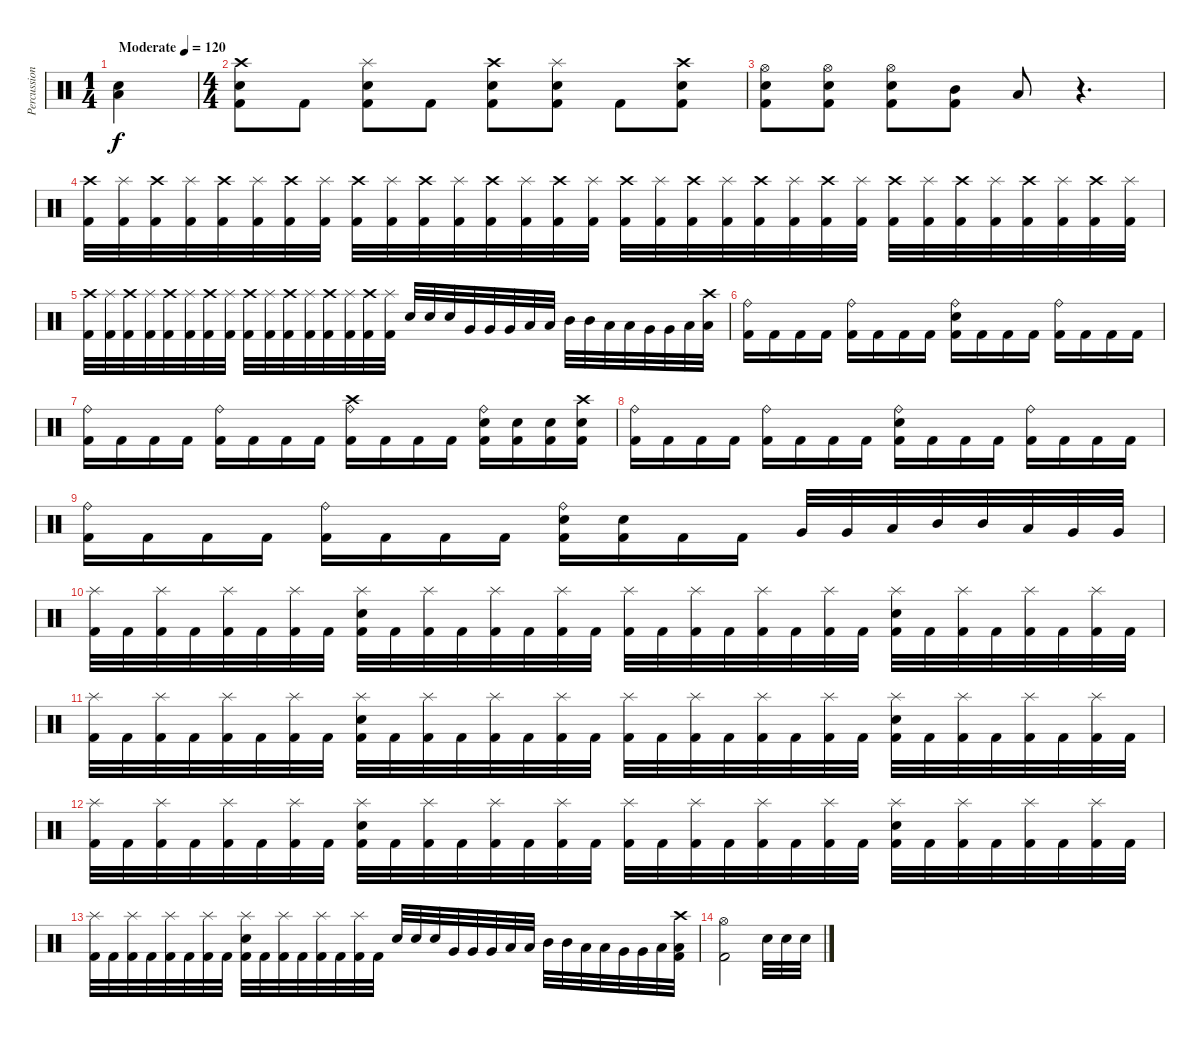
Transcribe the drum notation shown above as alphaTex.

\track ("Percussion" "Percussion") {instrument percussion}
\staff {score}
\articulation defaults
\ts (1 4)
\tempo (120 "Moderate")
\clef neutral
\ks c
("Low Floor Tom (hit)" "Snare (hit) 2").4{dy f} |
\ts (4 4)
("Kick (hit) 2" "Snare (hit) 2" "Crash high (hit)").8 "Kick (hit) 2".8 ("Kick (hit) 2" "Snare (hit) 2" "Splash (hit)").8 "Kick (hit) 2".8 ("Kick (hit) 2" "Snare (hit) 2" "Crash high (hit)").8 ("Kick (hit) 2" "Snare (hit) 2" "Splash (hit)").8 "Kick (hit) 2".8 ("Kick (hit) 2" "Snare (hit) 2" "Crash high (hit)").8 |
("Kick (hit) 2" "Hi-Hat (open)" "Snare (hit) 2").8 ("Kick (hit) 2" "Hi-Hat (open)" "Snare (hit) 2").8 ("Kick (hit) 2" "Hi-Hat (open)" "Snare (hit) 2").8 ("Kick (hit) 2" "Mid Tom (hit)").8 "Low Tom (hit)".8 r.4{d} |
("Crash high (hit)" "Kick (hit) 2").32 ("Splash (hit)" "Kick (hit) 2").32 ("Crash high (hit)" "Kick (hit) 2").32 ("Splash (hit)" "Kick (hit) 2").32 ("Crash high (hit)" "Kick (hit) 2").32 ("Splash (hit)" "Kick (hit) 2").32 ("Crash high (hit)" "Kick (hit) 2").32 ("Splash (hit)" "Kick (hit) 2").32 ("Crash high (hit)" "Kick (hit) 2").32 ("Splash (hit)" "Kick (hit) 2").32 ("Crash high (hit)" "Kick (hit) 2").32 ("Splash (hit)" "Kick (hit) 2").32 ("Crash high (hit)" "Kick (hit) 2").32 ("Splash (hit)" "Kick (hit) 2").32 ("Crash high (hit)" "Kick (hit) 2").32 ("Splash (hit)" "Kick (hit) 2").32 ("Crash high (hit)" "Kick (hit) 2").32 ("Splash (hit)" "Kick (hit) 2").32 ("Crash high (hit)" "Kick (hit) 2").32 ("Splash (hit)" "Kick (hit) 2").32 ("Crash high (hit)" "Kick (hit) 2").32 ("Splash (hit)" "Kick (hit) 2").32 ("Crash high (hit)" "Kick (hit) 2").32 ("Splash (hit)" "Kick (hit) 2").32 ("Crash high (hit)" "Kick (hit) 2").32 ("Splash (hit)" "Kick (hit) 2").32 ("Crash high (hit)" "Kick (hit) 2").32 ("Splash (hit)" "Kick (hit) 2").32 ("Crash high (hit)" "Kick (hit) 2").32 ("Splash (hit)" "Kick (hit) 2").32 ("Crash high (hit)" "Kick (hit) 2").32 ("Splash (hit)" "Kick (hit) 2").32 |
("Crash high (hit)" "Kick (hit) 2").32 ("Splash (hit)" "Kick (hit) 2").32 ("Crash high (hit)" "Kick (hit) 2").32 ("Splash (hit)" "Kick (hit) 2").32 ("Crash high (hit)" "Kick (hit) 2").32 ("Splash (hit)" "Kick (hit) 2").32 ("Crash high (hit)" "Kick (hit) 2").32 ("Splash (hit)" "Kick (hit) 2").32 ("Crash high (hit)" "Kick (hit) 2").32 ("Splash (hit)" "Kick (hit) 2").32 ("Crash high (hit)" "Kick (hit) 2").32 ("Splash (hit)" "Kick (hit) 2").32 ("Crash high (hit)" "Kick (hit) 2").32 ("Splash (hit)" "Kick (hit) 2").32 ("Crash high (hit)" "Kick (hit) 2").32 ("Splash (hit)" "Kick (hit) 2").32 "Snare (hit) 2".32 "Snare (hit) 2".32 "Snare (hit) 2".32 "Very Low Tom (hit)".32 "Very Low Tom (hit)".32 "Very Low Tom (hit)".32 "Low Tom (hit)".32 "Low Tom (hit)".32 "Mid Tom (hit)".32 "Mid Tom (hit)".32 "Low Tom (hit)".32 "Low Tom (hit)".32 "Very Low Tom (hit)".32 "Very Low Tom (hit)".32 "Low Floor Tom (hit)".32 ("Crash high (hit)" "Low Floor Tom (hit)").32 |
("Ride (bell)" "Kick (hit) 2").16 "Kick (hit) 2".16 "Kick (hit) 2".16 "Kick (hit) 2".16 ("Ride (bell)" "Kick (hit) 2").16 "Kick (hit) 2".16 "Kick (hit) 2".16 "Kick (hit) 2".16 ("Snare (hit) 2" "Ride (bell)" "Kick (hit) 2").16 "Kick (hit) 2".16 "Kick (hit) 2".16 "Kick (hit) 2".16 ("Ride (bell)" "Kick (hit) 2").16 "Kick (hit) 2".16 "Kick (hit) 2".16 "Kick (hit) 2".16 |
("Ride (bell)" "Kick (hit) 2").16 "Kick (hit) 2".16 "Kick (hit) 2".16 "Kick (hit) 2".16 ("Ride (bell)" "Kick (hit) 2").16 "Kick (hit) 2".16 "Kick (hit) 2".16 "Kick (hit) 2".16 ("Crash high (hit)" "Ride (bell)" "Kick (hit) 2").16 "Kick (hit) 2".16 "Kick (hit) 2".16 "Kick (hit) 2".16 ("Snare (hit) 2" "Ride (bell)" "Kick (hit) 2").16 ("Snare (hit) 2" "Kick (hit) 2").16 ("Snare (hit) 2" "Kick (hit) 2").16 ("Snare (hit) 2" "Crash high (hit)" "Kick (hit) 2").16 |
("Ride (bell)" "Kick (hit) 2").16 "Kick (hit) 2".16 "Kick (hit) 2".16 "Kick (hit) 2".16 ("Ride (bell)" "Kick (hit) 2").16 "Kick (hit) 2".16 "Kick (hit) 2".16 "Kick (hit) 2".16 ("Snare (hit) 2" "Ride (bell)" "Kick (hit) 2").16 "Kick (hit) 2".16 "Kick (hit) 2".16 "Kick (hit) 2".16 ("Ride (bell)" "Kick (hit) 2").16 "Kick (hit) 2".16 "Kick (hit) 2".16 "Kick (hit) 2".16 |
("Ride (bell)" "Kick (hit) 2").16 "Kick (hit) 2".16 "Kick (hit) 2".16 "Kick (hit) 2".16 ("Ride (bell)" "Kick (hit) 2").16 "Kick (hit) 2".16 "Kick (hit) 2".16 "Kick (hit) 2".16 ("Snare (hit) 2" "Ride (bell)" "Kick (hit) 2").16 ("Snare (hit) 2" "Kick (hit) 2").16 "Kick (hit) 2".16 "Kick (hit) 2".16 "Very Low Tom (hit)".32 "Very Low Tom (hit)".32 "Low Tom (hit)".32 "Mid Tom (hit)".32 "Mid Tom (hit)".32 "Low Tom (hit)".32 "Very Low Tom (hit)".32 "Very Low Tom (hit)".32 |
("Splash (hit)" "Kick (hit) 2").32 "Kick (hit) 2".32 ("Splash (hit)" "Kick (hit) 2").32 "Kick (hit) 2".32 ("Splash (hit)" "Kick (hit) 2").32 "Kick (hit) 2".32 ("Splash (hit)" "Kick (hit) 2").32 "Kick (hit) 2".32 ("Snare (hit) 2" "Splash (hit)" "Kick (hit) 2").32 "Kick (hit) 2".32 ("Splash (hit)" "Kick (hit) 2").32 "Kick (hit) 2".32 ("Splash (hit)" "Kick (hit) 2").32 "Kick (hit) 2".32 ("Splash (hit)" "Kick (hit) 2").32 "Kick (hit) 2".32 ("Splash (hit)" "Kick (hit) 2").32 "Kick (hit) 2".32 ("Splash (hit)" "Kick (hit) 2").32 "Kick (hit) 2".32 ("Splash (hit)" "Kick (hit) 2").32 "Kick (hit) 2".32 ("Splash (hit)" "Kick (hit) 2").32 "Kick (hit) 2".32 ("Snare (hit) 2" "Splash (hit)" "Kick (hit) 2").32 "Kick (hit) 2".32 ("Splash (hit)" "Kick (hit) 2").32 "Kick (hit) 2".32 ("Splash (hit)" "Kick (hit) 2").32 "Kick (hit) 2".32 ("Splash (hit)" "Kick (hit) 2").32 "Kick (hit) 2".32 |
("Splash (hit)" "Kick (hit) 2").32 "Kick (hit) 2".32 ("Splash (hit)" "Kick (hit) 2").32 "Kick (hit) 2".32 ("Splash (hit)" "Kick (hit) 2").32 "Kick (hit) 2".32 ("Splash (hit)" "Kick (hit) 2").32 "Kick (hit) 2".32 ("Snare (hit) 2" "Splash (hit)" "Kick (hit) 2").32 "Kick (hit) 2".32 ("Splash (hit)" "Kick (hit) 2").32 "Kick (hit) 2".32 ("Splash (hit)" "Kick (hit) 2").32 "Kick (hit) 2".32 ("Splash (hit)" "Kick (hit) 2").32 "Kick (hit) 2".32 ("Splash (hit)" "Kick (hit) 2").32 "Kick (hit) 2".32 ("Splash (hit)" "Kick (hit) 2").32 "Kick (hit) 2".32 ("Splash (hit)" "Kick (hit) 2").32 "Kick (hit) 2".32 ("Splash (hit)" "Kick (hit) 2").32 "Kick (hit) 2".32 ("Snare (hit) 2" "Splash (hit)" "Kick (hit) 2").32 "Kick (hit) 2".32 ("Splash (hit)" "Kick (hit) 2").32 "Kick (hit) 2".32 ("Splash (hit)" "Kick (hit) 2").32 "Kick (hit) 2".32 ("Splash (hit)" "Kick (hit) 2").32 "Kick (hit) 2".32 |
("Splash (hit)" "Kick (hit) 2").32 "Kick (hit) 2".32 ("Splash (hit)" "Kick (hit) 2").32 "Kick (hit) 2".32 ("Splash (hit)" "Kick (hit) 2").32 "Kick (hit) 2".32 ("Splash (hit)" "Kick (hit) 2").32 "Kick (hit) 2".32 ("Snare (hit) 2" "Splash (hit)" "Kick (hit) 2").32 "Kick (hit) 2".32 ("Splash (hit)" "Kick (hit) 2").32 "Kick (hit) 2".32 ("Splash (hit)" "Kick (hit) 2").32 "Kick (hit) 2".32 ("Splash (hit)" "Kick (hit) 2").32 "Kick (hit) 2".32 ("Splash (hit)" "Kick (hit) 2").32 "Kick (hit) 2".32 ("Splash (hit)" "Kick (hit) 2").32 "Kick (hit) 2".32 ("Splash (hit)" "Kick (hit) 2").32 "Kick (hit) 2".32 ("Splash (hit)" "Kick (hit) 2").32 "Kick (hit) 2".32 ("Snare (hit) 2" "Splash (hit)" "Kick (hit) 2").32 "Kick (hit) 2".32 ("Splash (hit)" "Kick (hit) 2").32 "Kick (hit) 2".32 ("Splash (hit)" "Kick (hit) 2").32 "Kick (hit) 2".32 ("Splash (hit)" "Kick (hit) 2").32 "Kick (hit) 2".32 |
("Splash (hit)" "Kick (hit) 2").32 "Kick (hit) 2".32 ("Splash (hit)" "Kick (hit) 2").32 "Kick (hit) 2".32 ("Splash (hit)" "Kick (hit) 2").32 "Kick (hit) 2".32 ("Splash (hit)" "Kick (hit) 2").32 "Kick (hit) 2".32 ("Snare (hit) 2" "Splash (hit)" "Kick (hit) 2").32 "Kick (hit) 2".32 ("Splash (hit)" "Kick (hit) 2").32 "Kick (hit) 2".32 ("Splash (hit)" "Kick (hit) 2").32 "Kick (hit) 2".32 ("Splash (hit)" "Kick (hit) 2").32 "Kick (hit) 2".32 "Snare (hit) 2".32{balance 6} "Snare (hit) 2".32{balance 4} "Snare (hit) 2".32{balance 2} "Very Low Tom (hit)".32{balance 0} "Very Low Tom (hit)".32{balance 2} "Very Low Tom (hit)".32{balance 4} "Low Tom (hit)".32{balance 6} "Low Tom (hit)".32{balance 8} "Mid Tom (hit)".32{balance 10} "Mid Tom (hit)".32{balance 12} "Low Tom (hit)".32{balance 14} "Low Tom (hit)".32{balance 16} "Very Low Tom (hit)".32{balance 14} "Very Low Tom (hit)".32{balance 12} "Low Floor Tom (hit)".32{balance 10} ("Kick (hit) 2" "Crash high (hit)" "Low Floor Tom (hit)").32{balance 8} |
("Kick (hit) 2" "Hi-Hat (open)").2 "Snare (hit) 2".32 "Snare (hit) 2".32 "Snare (hit) 2".32
